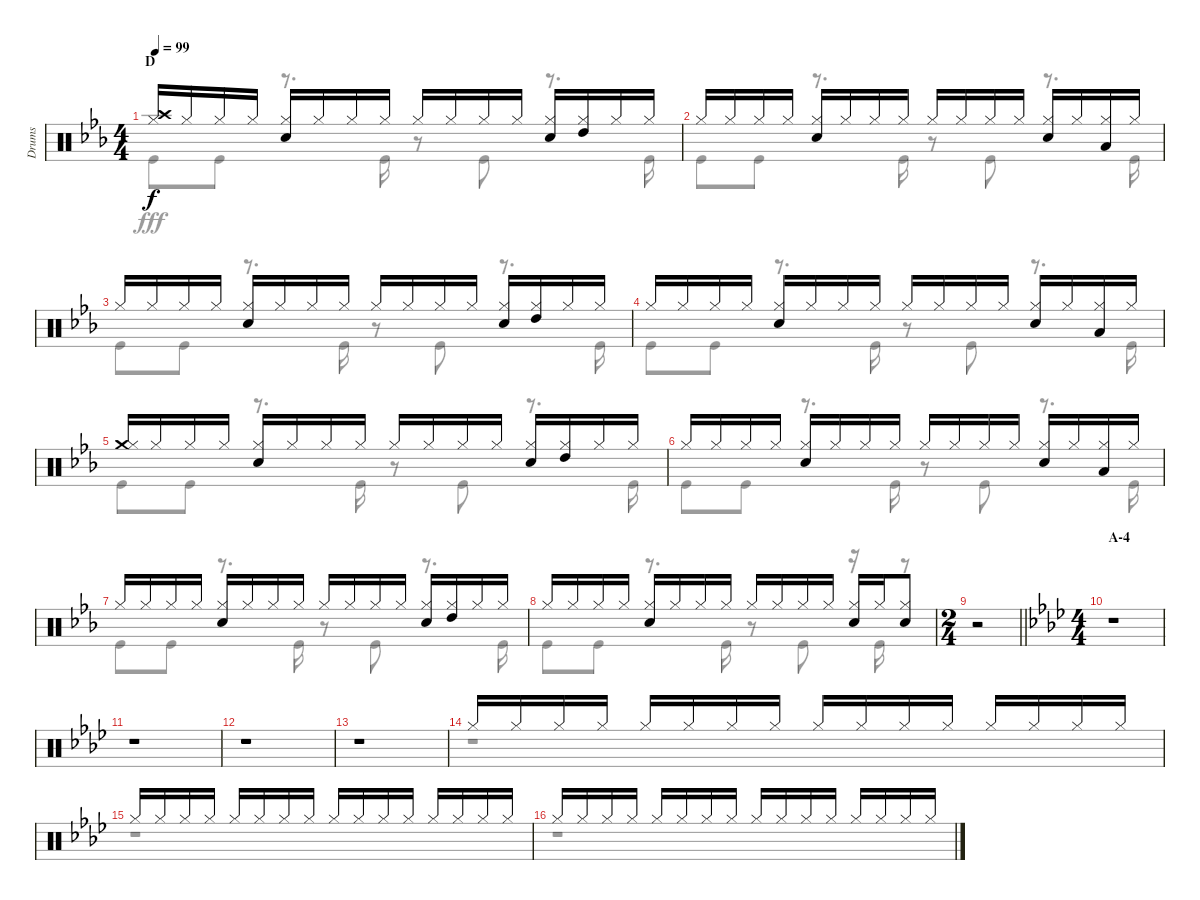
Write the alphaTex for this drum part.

\track ("Drums" "Drums") {instrument percussion}
\staff {score}
\articulation defaults
\voice
\ts (4 4)
\section ("" "D")
\tempo 99
\clef neutral
\ks eb
("Crash high (hit)" "Hi-Hat (closed)").16{dy f} "Hi-Hat (closed)".16 "Hi-Hat (closed)".16 "Hi-Hat (closed)".16 ("Hi-Hat (closed)" "Snare (hit) 2").16 "Hi-Hat (closed)".16 "Hi-Hat (closed)".16 "Hi-Hat (closed)".16 "Hi-Hat (closed)".16 "Hi-Hat (closed)".16 "Hi-Hat (closed)".16 "Hi-Hat (closed)".16 ("Hi-Hat (closed)" "Snare (hit) 2").16 ("Hi-Hat (closed)" "High Tom (hit)").16 "Hi-Hat (closed)".16 "Hi-Hat (closed)".16 |
"Hi-Hat (closed)".16 "Hi-Hat (closed)".16 "Hi-Hat (closed)".16 "Hi-Hat (closed)".16 ("Hi-Hat (closed)" "Snare (hit) 2").16 "Hi-Hat (closed)".16 "Hi-Hat (closed)".16 "Hi-Hat (closed)".16 "Hi-Hat (closed)".16 "Hi-Hat (closed)".16 "Hi-Hat (closed)".16 "Hi-Hat (closed)".16 ("Hi-Hat (closed)" "Snare (hit) 2").16 "Hi-Hat (closed)".16 ("Hi-Hat (closed)" "Low Tom (hit)").16 "Hi-Hat (closed)".16 |
"Hi-Hat (closed)".16 "Hi-Hat (closed)".16 "Hi-Hat (closed)".16 "Hi-Hat (closed)".16 ("Hi-Hat (closed)" "Snare (hit) 2").16 "Hi-Hat (closed)".16 "Hi-Hat (closed)".16 "Hi-Hat (closed)".16 "Hi-Hat (closed)".16 "Hi-Hat (closed)".16 "Hi-Hat (closed)".16 "Hi-Hat (closed)".16 ("Hi-Hat (closed)" "Snare (hit) 2").16 ("Hi-Hat (closed)" "High Tom (hit)").16 "Hi-Hat (closed)".16 "Hi-Hat (closed)".16 |
"Hi-Hat (closed)".16 "Hi-Hat (closed)".16 "Hi-Hat (closed)".16 "Hi-Hat (closed)".16 ("Hi-Hat (closed)" "Snare (hit) 2").16 "Hi-Hat (closed)".16 "Hi-Hat (closed)".16 "Hi-Hat (closed)".16 "Hi-Hat (closed)".16 "Hi-Hat (closed)".16 "Hi-Hat (closed)".16 "Hi-Hat (closed)".16 ("Hi-Hat (closed)" "Snare (hit) 2").16 "Hi-Hat (closed)".16 ("Hi-Hat (closed)" "Low Tom (hit)").16 "Hi-Hat (closed)".16 |
("Crash medium (hit)" "Hi-Hat (closed)").16 "Hi-Hat (closed)".16 "Hi-Hat (closed)".16 "Hi-Hat (closed)".16 ("Hi-Hat (closed)" "Snare (hit) 2").16 "Hi-Hat (closed)".16 "Hi-Hat (closed)".16 "Hi-Hat (closed)".16 "Hi-Hat (closed)".16 "Hi-Hat (closed)".16 "Hi-Hat (closed)".16 "Hi-Hat (closed)".16 ("Hi-Hat (closed)" "Snare (hit) 2").16 ("Hi-Hat (closed)" "High Tom (hit)").16 "Hi-Hat (closed)".16 "Hi-Hat (closed)".16 |
"Hi-Hat (closed)".16 "Hi-Hat (closed)".16 "Hi-Hat (closed)".16 "Hi-Hat (closed)".16 ("Hi-Hat (closed)" "Snare (hit) 2").16 "Hi-Hat (closed)".16 "Hi-Hat (closed)".16 "Hi-Hat (closed)".16 "Hi-Hat (closed)".16 "Hi-Hat (closed)".16 "Hi-Hat (closed)".16 "Hi-Hat (closed)".16 ("Hi-Hat (closed)" "Snare (hit) 2").16 "Hi-Hat (closed)".16 ("Hi-Hat (closed)" "Low Tom (hit)").16 "Hi-Hat (closed)".16 |
"Hi-Hat (closed)".16 "Hi-Hat (closed)".16 "Hi-Hat (closed)".16 "Hi-Hat (closed)".16 ("Hi-Hat (closed)" "Snare (hit) 2").16 "Hi-Hat (closed)".16 "Hi-Hat (closed)".16 "Hi-Hat (closed)".16 "Hi-Hat (closed)".16 "Hi-Hat (closed)".16 "Hi-Hat (closed)".16 "Hi-Hat (closed)".16 ("Hi-Hat (closed)" "Snare (hit) 2").16 ("Hi-Hat (closed)" "High Tom (hit)").16 "Hi-Hat (closed)".16 "Hi-Hat (closed)".16 |
"Hi-Hat (closed)".16 "Hi-Hat (closed)".16 "Hi-Hat (closed)".16 "Hi-Hat (closed)".16 ("Hi-Hat (closed)" "Snare (hit) 2").16 "Hi-Hat (closed)".16 "Hi-Hat (closed)".16 "Hi-Hat (closed)".16 "Hi-Hat (closed)".16 "Hi-Hat (closed)".16 "Hi-Hat (closed)".16 "Hi-Hat (closed)".16 ("Hi-Hat (closed)" "Snare (hit) 2").16 "Hi-Hat (closed)".16 ("Hi-Hat (closed)" "Snare (hit) 2").8 |
\ts (2 4)
\barLineRight lightlight
r.2 |
\ts (4 4)
\section ("" "A-4")
\ks ab
r.1 |
r.1 |
r.1 |
r.1 |
"Hi-Hat (closed)".16 "Hi-Hat (closed)".16 "Hi-Hat (closed)".16 "Hi-Hat (closed)".16 "Hi-Hat (closed)".16 "Hi-Hat (closed)".16 "Hi-Hat (closed)".16 "Hi-Hat (closed)".16 "Hi-Hat (closed)".16 "Hi-Hat (closed)".16 "Hi-Hat (closed)".16 "Hi-Hat (closed)".16 "Hi-Hat (closed)".16 "Hi-Hat (closed)".16 "Hi-Hat (closed)".16 "Hi-Hat (closed)".16 |
"Hi-Hat (closed)".16 "Hi-Hat (closed)".16 "Hi-Hat (closed)".16 "Hi-Hat (closed)".16 "Hi-Hat (closed)".16 "Hi-Hat (closed)".16 "Hi-Hat (closed)".16 "Hi-Hat (closed)".16 "Hi-Hat (closed)".16 "Hi-Hat (closed)".16 "Hi-Hat (closed)".16 "Hi-Hat (closed)".16 "Hi-Hat (closed)".16 "Hi-Hat (closed)".16 "Hi-Hat (closed)".16 "Hi-Hat (closed)".16 |
"Hi-Hat (closed)".16 "Hi-Hat (closed)".16 "Hi-Hat (closed)".16 "Hi-Hat (closed)".16 "Hi-Hat (closed)".16 "Hi-Hat (closed)".16 "Hi-Hat (closed)".16 "Hi-Hat (closed)".16 "Hi-Hat (closed)".16 "Hi-Hat (closed)".16 "Hi-Hat (closed)".16 "Hi-Hat (closed)".16 "Hi-Hat (closed)".16 "Hi-Hat (closed)".16 "Hi-Hat (closed)".16 "Hi-Hat (closed)".16
\voice
\clef neutral
\ottava regular
\simile none
\ks eb "Kick (hit)".8{dy fff} "Kick (hit)".8
r.8{d} "Kick (hit)".16 r.8 "Kick (hit)".8 r.8{d} "Kick (hit)".16 |
"Kick (hit)".8 "Kick (hit)".8 r.8{d} "Kick (hit)".16 r.8 "Kick (hit)".8 r.8{d} "Kick (hit)".16 |
"Kick (hit)".8 "Kick (hit)".8 r.8{d} "Kick (hit)".16 r.8 "Kick (hit)".8 r.8{d} "Kick (hit)".16 |
"Kick (hit)".8 "Kick (hit)".8 r.8{d} "Kick (hit)".16 r.8 "Kick (hit)".8 r.8{d} "Kick (hit)".16 |
"Kick (hit)".8 "Kick (hit)".8 r.8{d} "Kick (hit)".16 r.8 "Kick (hit)".8 r.8{d} "Kick (hit)".16 |
"Kick (hit)".8 "Kick (hit)".8 r.8{d} "Kick (hit)".16 r.8 "Kick (hit)".8 r.8{d} "Kick (hit)".16 |
"Kick (hit)".8 "Kick (hit)".8 r.8{d} "Kick (hit)".16 r.8 "Kick (hit)".8 r.8{d} "Kick (hit)".16 |
"Kick (hit)".8 "Kick (hit)".8 r.8{d} "Kick (hit)".16 r.8 "Kick (hit)".8 r.16 "Kick (hit)".16 r.8 |
\barLineRight lightlight
r.2 |
\ks ab
r.1 |
r.1 |
r.1 |
r.1 |
r.1 |
r.1 |
r.1
